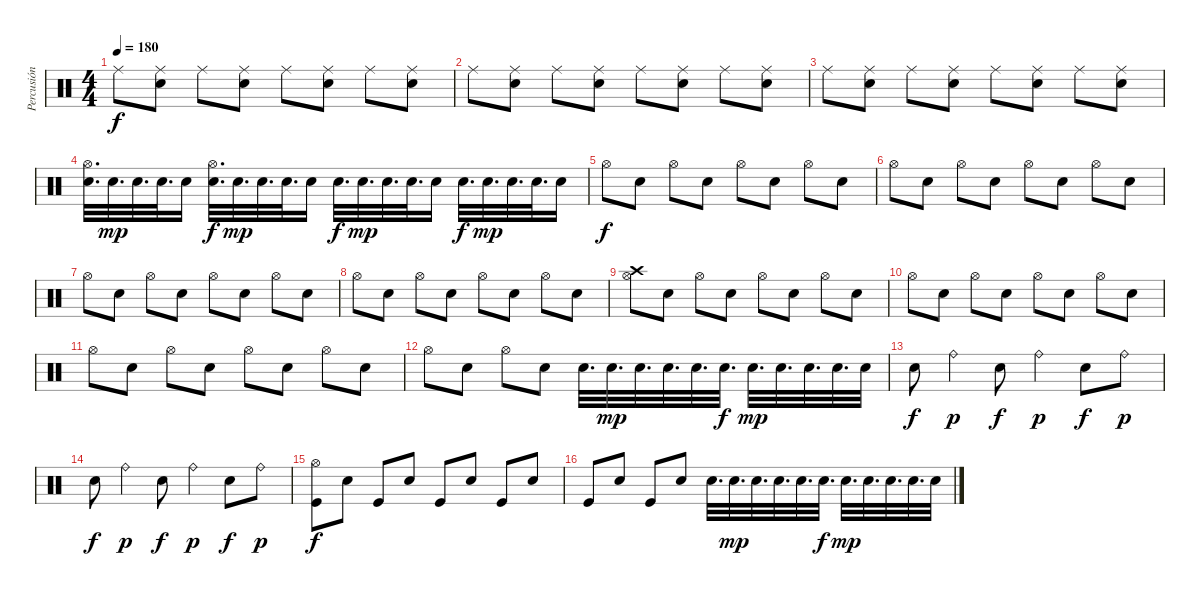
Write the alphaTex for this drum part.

\track ("Percusión" "Percusión") {instrument percussion}
\staff {score}
\articulation defaults
\ts (4 4)
\tempo 180
\clef neutral
\ks c "Ride (middle)".8{dy f}
("Ride (middle)" "Snare (hit) 2").8 "Ride (middle)".8 ("Ride (middle)" "Snare (hit) 2").8 "Ride (middle)".8 ("Ride (middle)" "Snare (hit) 2").8 "Ride (middle)".8 ("Ride (middle)" "Snare (hit) 2").8 |
"Ride (middle)".8 ("Ride (middle)" "Snare (hit) 2").8 "Ride (middle)".8 ("Ride (middle)" "Snare (hit) 2").8 "Ride (middle)".8 ("Ride (middle)" "Snare (hit) 2").8 "Ride (middle)".8 ("Ride (middle)" "Snare (hit) 2").8 |
"Ride (middle)".8 ("Ride (middle)" "Snare (hit) 2").8 "Ride (middle)".8 ("Ride (middle)" "Snare (hit) 2").8 "Ride (middle)".8 ("Ride (middle)" "Snare (hit) 2").8 "Ride (middle)".8 ("Ride (middle)" "Snare (hit) 2").8 |
("Snare (hit) 2" "Hi-Hat (open)").32{d} "Snare (hit) 2".32{d dy mp} "Snare (hit) 2".32{d} "Snare (hit) 2".32{d} "Snare (hit) 2".16 ("Snare (hit) 2" "Hi-Hat (open)").32{d dy f} "Snare (hit) 2".32{d dy mp} "Snare (hit) 2".32{d} "Snare (hit) 2".32{d} "Snare (hit) 2".16 "Snare (hit) 2".32{d dy f} "Snare (hit) 2".32{d dy mp} "Snare (hit) 2".32{d} "Snare (hit) 2".32{d} "Snare (hit) 2".16 "Snare (hit) 2".32{d dy f} "Snare (hit) 2".32{d dy mp} "Snare (hit) 2".32{d} "Snare (hit) 2".32{d} "Snare (hit) 2".16 |
"Hi-Hat (open)".8{dy f} "Snare (hit) 2".8 "Hi-Hat (open)".8 "Snare (hit) 2".8 "Hi-Hat (open)".8 "Snare (hit) 2".8 "Hi-Hat (open)".8 "Snare (hit) 2".8 |
"Hi-Hat (open)".8 "Snare (hit) 2".8 "Hi-Hat (open)".8 "Snare (hit) 2".8 "Hi-Hat (open)".8 "Snare (hit) 2".8 "Hi-Hat (open)".8 "Snare (hit) 2".8 |
"Hi-Hat (open)".8 "Snare (hit) 2".8 "Hi-Hat (open)".8 "Snare (hit) 2".8 "Hi-Hat (open)".8 "Snare (hit) 2".8 "Hi-Hat (open)".8 "Snare (hit) 2".8 |
"Hi-Hat (open)".8 "Snare (hit) 2".8 "Hi-Hat (open)".8 "Snare (hit) 2".8 "Hi-Hat (open)".8 "Snare (hit) 2".8 "Hi-Hat (open)".8 "Snare (hit) 2".8 |
("Hi-Hat (open)" "Crash high (hit)").8 "Snare (hit) 2".8 "Hi-Hat (open)".8 "Snare (hit) 2".8 "Hi-Hat (open)".8 "Snare (hit) 2".8 "Hi-Hat (open)".8 "Snare (hit) 2".8 |
"Hi-Hat (open)".8 "Snare (hit) 2".8 "Hi-Hat (open)".8 "Snare (hit) 2".8 "Hi-Hat (open)".8 "Snare (hit) 2".8 "Hi-Hat (open)".8 "Snare (hit) 2".8 |
"Hi-Hat (open)".8 "Snare (hit) 2".8 "Hi-Hat (open)".8 "Snare (hit) 2".8 "Hi-Hat (open)".8 "Snare (hit) 2".8 "Hi-Hat (open)".8 "Snare (hit) 2".8 |
"Hi-Hat (open)".8 "Snare (hit) 2".8 "Hi-Hat (open)".8 "Snare (hit) 2".8 "Snare (hit) 2".32{d} "Snare (hit) 2".32{d dy mp} "Snare (hit) 2".32{d} "Snare (hit) 2".32{d} "Snare (hit) 2".32{d} "Snare (hit) 2".32{d dy f} "Snare (hit) 2".32{d dy mp} "Snare (hit) 2".32{d} "Snare (hit) 2".32{d} "Snare (hit) 2".32{d} "Snare (hit) 2".32 |
"Snare (hit) 2".8{dy f} "Ride (bell)".4{dy p} "Snare (hit) 2".8{dy f} "Ride (bell)".4{dy p} "Snare (hit) 2".8{dy f} "Ride (bell)".8{dy p} |
"Snare (hit) 2".8{dy f} "Ride (bell)".4{dy p} "Snare (hit) 2".8{dy f} "Ride (bell)".4{dy p} "Snare (hit) 2".8{dy f} "Ride (bell)".8{dy p} |
("Kick (hit)" "Hi-Hat (open)").8{dy f} "Snare (hit) 2".8 "Kick (hit)".8 "Snare (hit) 2".8 "Kick (hit)".8 "Snare (hit) 2".8 "Kick (hit)".8 "Snare (hit) 2".8 |
"Kick (hit)".8 "Snare (hit) 2".8 "Kick (hit)".8 "Snare (hit) 2".8 "Snare (hit) 2".32{d} "Snare (hit) 2".32{d dy mp} "Snare (hit) 2".32{d} "Snare (hit) 2".32{d} "Snare (hit) 2".32{d} "Snare (hit) 2".32{d dy f} "Snare (hit) 2".32{d dy mp} "Snare (hit) 2".32{d} "Snare (hit) 2".32{d} "Snare (hit) 2".32{d} "Snare (hit) 2".32
